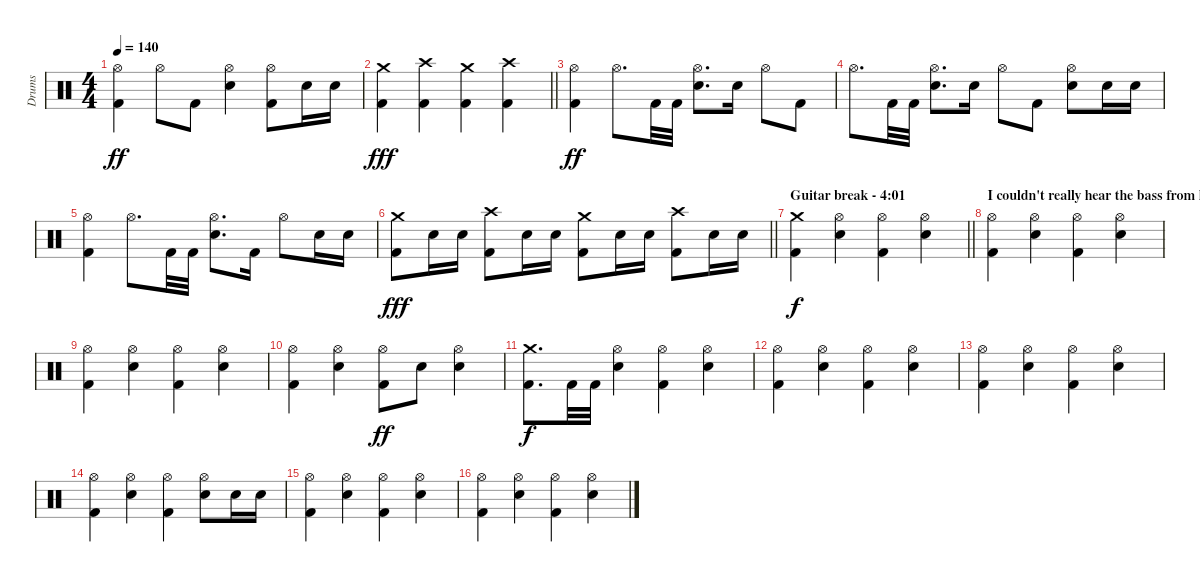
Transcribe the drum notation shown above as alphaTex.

\track ("Drums" "Drums") {instrument percussion}
\staff {score}
\articulation defaults
\ts (4 4)
\tempo 140
\clef neutral
\ks c
("Hi-Hat (open)" "Kick (hit) 2").4{dy ff} "Hi-Hat (open)".8 "Kick (hit) 2".8 ("Hi-Hat (open)" "Electric Snare (hit)").4 ("Hi-Hat (open)" "Kick (hit) 2").8 "Electric Snare (hit)".16 "Electric Snare (hit)".16 |
\barLineRight lightlight
("Crash medium (hit)" "Kick (hit) 2").4{dy fff} ("Crash high (hit)" "Kick (hit) 2").4 ("Crash medium (hit)" "Kick (hit) 2").4 ("Crash high (hit)" "Kick (hit) 2").4 |
("Hi-Hat (open)" "Kick (hit) 2").4{dy ff} "Hi-Hat (open)".8{d} "Kick (hit) 2".32 "Kick (hit) 2".32 ("Hi-Hat (open)" "Electric Snare (hit)").8{d} "Electric Snare (hit)".16 "Hi-Hat (open)".8 "Kick (hit) 2".8 |
"Hi-Hat (open)".8{d} "Kick (hit) 2".32 "Kick (hit) 2".32 ("Hi-Hat (open)" "Electric Snare (hit)").8{d} "Electric Snare (hit)".16 "Hi-Hat (open)".8 "Kick (hit) 2".8 ("Hi-Hat (open)" "Electric Snare (hit)").8 "Electric Snare (hit)".16 "Electric Snare (hit)".16 |
("Hi-Hat (open)" "Kick (hit) 2").4 "Hi-Hat (open)".8{d} "Kick (hit) 2".32 "Kick (hit) 2".32 ("Hi-Hat (open)" "Electric Snare (hit)").8{d} "Kick (hit) 2".16 "Hi-Hat (open)".8 "Electric Snare (hit)".16 "Electric Snare (hit)".16 |
\barLineRight lightlight
("Crash medium (hit)" "Kick (hit) 2").8{dy fff} "Electric Snare (hit)".16 "Electric Snare (hit)".16 ("Crash high (hit)" "Kick (hit) 2").8 "Electric Snare (hit)".16 "Electric Snare (hit)".16 ("Crash medium (hit)" "Kick (hit) 2").8 "Electric Snare (hit)".16 "Electric Snare (hit)".16 ("Crash high (hit)" "Kick (hit) 2").8 "Electric Snare (hit)".16 "Electric Snare (hit)".16 |
\section ("" "Guitar break - 4:01")
\barLineRight lightlight
("Crash medium (hit)" "Kick (hit) 2").4{dy f} ("Hi-Hat (open)" "Electric Snare (hit)").4 ("Hi-Hat (open)" "Kick (hit) 2").4 ("Hi-Hat (open)" "Electric Snare (hit)").4 |
\section ("" "I couldn't really hear the bass from here on out.")
("Hi-Hat (open)" "Kick (hit) 2").4 ("Hi-Hat (open)" "Electric Snare (hit)").4 ("Hi-Hat (open)" "Kick (hit) 2").4 ("Hi-Hat (open)" "Electric Snare (hit)").4 |
("Hi-Hat (open)" "Kick (hit) 2").4 ("Hi-Hat (open)" "Electric Snare (hit)").4 ("Hi-Hat (open)" "Kick (hit) 2").4 ("Hi-Hat (open)" "Electric Snare (hit)").4 |
("Hi-Hat (open)" "Kick (hit) 2").4 ("Hi-Hat (open)" "Electric Snare (hit)").4 ("Hi-Hat (open)" "Kick (hit) 2").8{dy ff} "Electric Snare (hit)".8 ("Hi-Hat (open)" "Electric Snare (hit)").4 |
("Crash medium (hit)" "Kick (hit) 2").8{d dy f} "Kick (hit) 2".32 "Kick (hit) 2".32 ("Hi-Hat (open)" "Electric Snare (hit)").4 ("Hi-Hat (open)" "Kick (hit) 2").4 ("Hi-Hat (open)" "Electric Snare (hit)").4 |
("Hi-Hat (open)" "Kick (hit) 2").4 ("Hi-Hat (open)" "Electric Snare (hit)").4 ("Hi-Hat (open)" "Kick (hit) 2").4 ("Hi-Hat (open)" "Electric Snare (hit)").4 |
("Hi-Hat (open)" "Kick (hit) 2").4 ("Hi-Hat (open)" "Electric Snare (hit)").4 ("Hi-Hat (open)" "Kick (hit) 2").4 ("Hi-Hat (open)" "Electric Snare (hit)").4 |
("Hi-Hat (open)" "Kick (hit) 2").4 ("Hi-Hat (open)" "Electric Snare (hit)").4 ("Hi-Hat (open)" "Kick (hit) 2").4 ("Hi-Hat (open)" "Electric Snare (hit)").8 "Electric Snare (hit)".16 "Electric Snare (hit)".16 |
("Hi-Hat (open)" "Kick (hit) 2").4 ("Hi-Hat (open)" "Electric Snare (hit)").4 ("Hi-Hat (open)" "Kick (hit) 2").4 ("Hi-Hat (open)" "Electric Snare (hit)").4 |
("Hi-Hat (open)" "Kick (hit) 2").4 ("Hi-Hat (open)" "Electric Snare (hit)").4 ("Hi-Hat (open)" "Kick (hit) 2").4 ("Hi-Hat (open)" "Electric Snare (hit)").4
